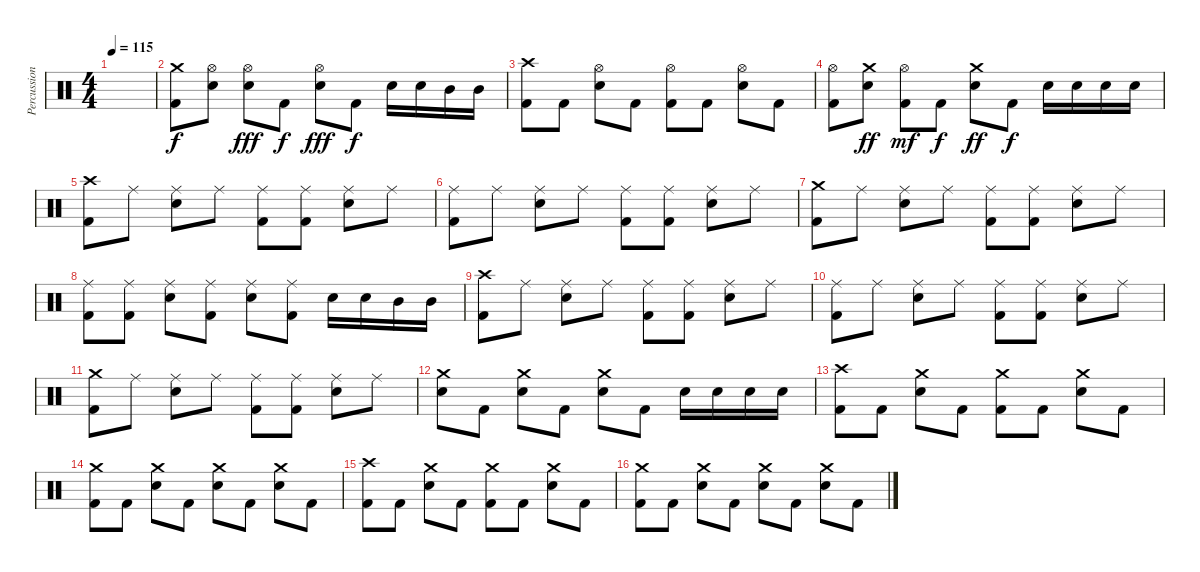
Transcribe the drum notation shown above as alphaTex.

\track ("Percussion" "Percussion") {instrument percussion}
\staff {score}
\articulation defaults
\ts (4 4)
\tempo 115
\clef neutral
\ks c
|
("Crash medium (hit)" "Kick (hit) 2").8 ("Hi-Hat (open)" "Electric Snare (hit)").8 ("Hi-Hat (open)" "Electric Snare (hit)").8{dy fff} "Kick (hit) 2".8{dy f} ("Hi-Hat (open)" "Electric Snare (hit)").8{dy fff} "Kick (hit) 2".8{dy f} "Electric Snare (hit)".16 "Electric Snare (hit)".16 "Mid Tom (hit)".16 "Mid Tom (hit)".16 |
("Crash high (hit)" "Kick (hit) 2").8 "Kick (hit) 2".8 ("Hi-Hat (open)" "Electric Snare (hit)").8 "Kick (hit) 2".8 ("Hi-Hat (open)" "Kick (hit) 2").8 "Kick (hit) 2".8 ("Hi-Hat (open)" "Electric Snare (hit)").8 "Kick (hit) 2".8 |
("Hi-Hat (open)" "Kick (hit) 2").8 ("Crash medium (hit)" "Electric Snare (hit)").8{dy ff} ("Hi-Hat (open)" "Kick (hit) 2").8{dy mf} "Kick (hit) 2".8{dy f} ("Crash medium (hit)" "Electric Snare (hit)").8{dy ff} "Kick (hit) 2".8{dy f} "Electric Snare (hit)".16 "Electric Snare (hit)".16 "Electric Snare (hit)".16 "Electric Snare (hit)".16 |
("Crash high (hit)" "Kick (hit) 2").8 "Ride (middle)".8 ("Ride (middle)" "Electric Snare (hit)").8 "Ride (middle)".8 ("Ride (middle)" "Kick (hit) 2").8 ("Ride (middle)" "Kick (hit) 2").8 ("Ride (middle)" "Electric Snare (hit)").8 "Ride (middle)".8 |
("Ride (middle)" "Kick (hit) 2").8 "Ride (middle)".8 ("Ride (middle)" "Electric Snare (hit)").8 "Ride (middle)".8 ("Ride (middle)" "Kick (hit) 2").8 ("Ride (middle)" "Kick (hit) 2").8 ("Ride (middle)" "Electric Snare (hit)").8 "Ride (middle)".8 |
("Crash medium (hit)" "Kick (hit) 2").8 "Ride (middle)".8 ("Ride (middle)" "Electric Snare (hit)").8 "Ride (middle)".8 ("Ride (middle)" "Kick (hit) 2").8 ("Ride (middle)" "Kick (hit) 2").8 ("Ride (middle)" "Electric Snare (hit)").8 "Ride (middle)".8 |
("Ride (middle)" "Kick (hit) 2").8 ("Ride (middle)" "Kick (hit) 2").8 ("Ride (middle)" "Electric Snare (hit)").8 ("Ride (middle)" "Kick (hit) 2").8 ("Ride (middle)" "Electric Snare (hit)").8 ("Ride (middle)" "Kick (hit) 2").8 "Electric Snare (hit)".16 "Electric Snare (hit)".16 "Mid Tom (hit)".16 "Mid Tom (hit)".16 |
("Crash high (hit)" "Kick (hit) 2").8 "Ride (middle)".8 ("Ride (middle)" "Electric Snare (hit)").8 "Ride (middle)".8 ("Ride (middle)" "Kick (hit) 2").8 ("Ride (middle)" "Kick (hit) 2").8 ("Ride (middle)" "Electric Snare (hit)").8 "Ride (middle)".8 |
("Ride (middle)" "Kick (hit) 2").8 "Ride (middle)".8 ("Ride (middle)" "Electric Snare (hit)").8 "Ride (middle)".8 ("Ride (middle)" "Kick (hit) 2").8 ("Ride (middle)" "Kick (hit) 2").8 ("Ride (middle)" "Electric Snare (hit)").8 "Ride (middle)".8 |
("Crash medium (hit)" "Kick (hit) 2").8 "Ride (middle)".8 ("Ride (middle)" "Electric Snare (hit)").8 "Ride (middle)".8 ("Ride (middle)" "Kick (hit) 2").8 ("Ride (middle)" "Kick (hit) 2").8 ("Ride (middle)" "Electric Snare (hit)").8 "Ride (middle)".8 |
("Crash medium (hit)" "Electric Snare (hit)").8 "Kick (hit) 2".8 ("Crash medium (hit)" "Electric Snare (hit)").8 "Kick (hit) 2".8 ("Crash medium (hit)" "Electric Snare (hit)").8 "Kick (hit) 2".8 "Electric Snare (hit)".16 "Electric Snare (hit)".16 "Electric Snare (hit)".16 "Electric Snare (hit)".16 |
("Crash high (hit)" "Kick (hit) 2").8 "Kick (hit) 2".8 ("Crash medium (hit)" "Electric Snare (hit)").8 "Kick (hit) 2".8 ("Crash medium (hit)" "Kick (hit) 2").8 "Kick (hit) 2".8 ("Crash medium (hit)" "Electric Snare (hit)").8 "Kick (hit) 2".8 |
("Crash medium (hit)" "Kick (hit) 2").8 "Kick (hit) 2".8 ("Crash medium (hit)" "Electric Snare (hit)").8 "Kick (hit) 2".8 ("Crash medium (hit)" "Electric Snare (hit)").8 "Kick (hit) 2".8 ("Crash medium (hit)" "Electric Snare (hit)").8 "Kick (hit) 2".8 |
("Crash high (hit)" "Kick (hit) 2").8 "Kick (hit) 2".8 ("Crash medium (hit)" "Electric Snare (hit)").8 "Kick (hit) 2".8 ("Crash medium (hit)" "Kick (hit) 2").8 "Kick (hit) 2".8 ("Crash medium (hit)" "Electric Snare (hit)").8 "Kick (hit) 2".8 |
("Crash medium (hit)" "Kick (hit) 2").8 "Kick (hit) 2".8 ("Crash medium (hit)" "Electric Snare (hit)").8 "Kick (hit) 2".8 ("Crash medium (hit)" "Electric Snare (hit)").8 "Kick (hit) 2".8 ("Crash medium (hit)" "Electric Snare (hit)").8 "Kick (hit) 2".8
